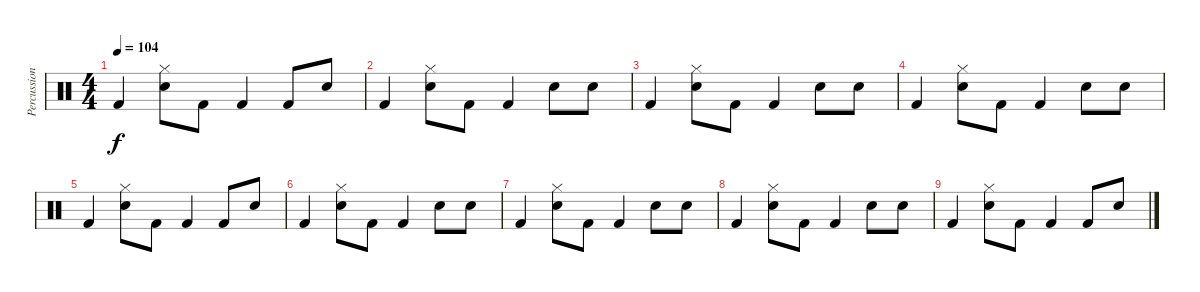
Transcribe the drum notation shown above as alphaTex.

\track ("Percussions" "Percussion") {instrument percussion}
\staff {score}
\articulation defaults
\ts (4 4)
\tempo 104
\clef neutral
\ks c "Kick (hit) 2".4{dy f}
("Hi-Hat (closed)" "Snare (hit) 2").8 "Kick (hit) 2".8 "Kick (hit) 2".4 "Kick (hit) 2".8 "Electric Snare (hit)".8 |
"Kick (hit) 2".4 ("Hi-Hat (closed)" "Snare (hit) 2").8 "Kick (hit) 2".8 "Kick (hit) 2".4 "Snare (hit) 2".8 "Electric Snare (hit)".8 |
"Kick (hit) 2".4 ("Hi-Hat (closed)" "Snare (hit) 2").8 "Kick (hit) 2".8 "Kick (hit) 2".4 "Snare (hit) 2".8 "Electric Snare (hit)".8 |
"Kick (hit) 2".4 ("Hi-Hat (closed)" "Snare (hit) 2").8 "Kick (hit) 2".8 "Kick (hit) 2".4 "Snare (hit) 2".8 "Electric Snare (hit)".8 |
"Kick (hit) 2".4 ("Hi-Hat (closed)" "Snare (hit) 2").8 "Kick (hit) 2".8 "Kick (hit) 2".4 "Kick (hit) 2".8 "Electric Snare (hit)".8 |
"Kick (hit) 2".4 ("Hi-Hat (closed)" "Snare (hit) 2").8 "Kick (hit) 2".8 "Kick (hit) 2".4 "Snare (hit) 2".8 "Electric Snare (hit)".8 |
"Kick (hit) 2".4 ("Hi-Hat (closed)" "Snare (hit) 2").8 "Kick (hit) 2".8 "Kick (hit) 2".4 "Snare (hit) 2".8 "Electric Snare (hit)".8 |
"Kick (hit) 2".4 ("Hi-Hat (closed)" "Snare (hit) 2").8 "Kick (hit) 2".8 "Kick (hit) 2".4 "Snare (hit) 2".8 "Electric Snare (hit)".8 |
"Kick (hit) 2".4 ("Hi-Hat (closed)" "Snare (hit) 2").8 "Kick (hit) 2".8 "Kick (hit) 2".4 "Kick (hit) 2".8 "Electric Snare (hit)".8
